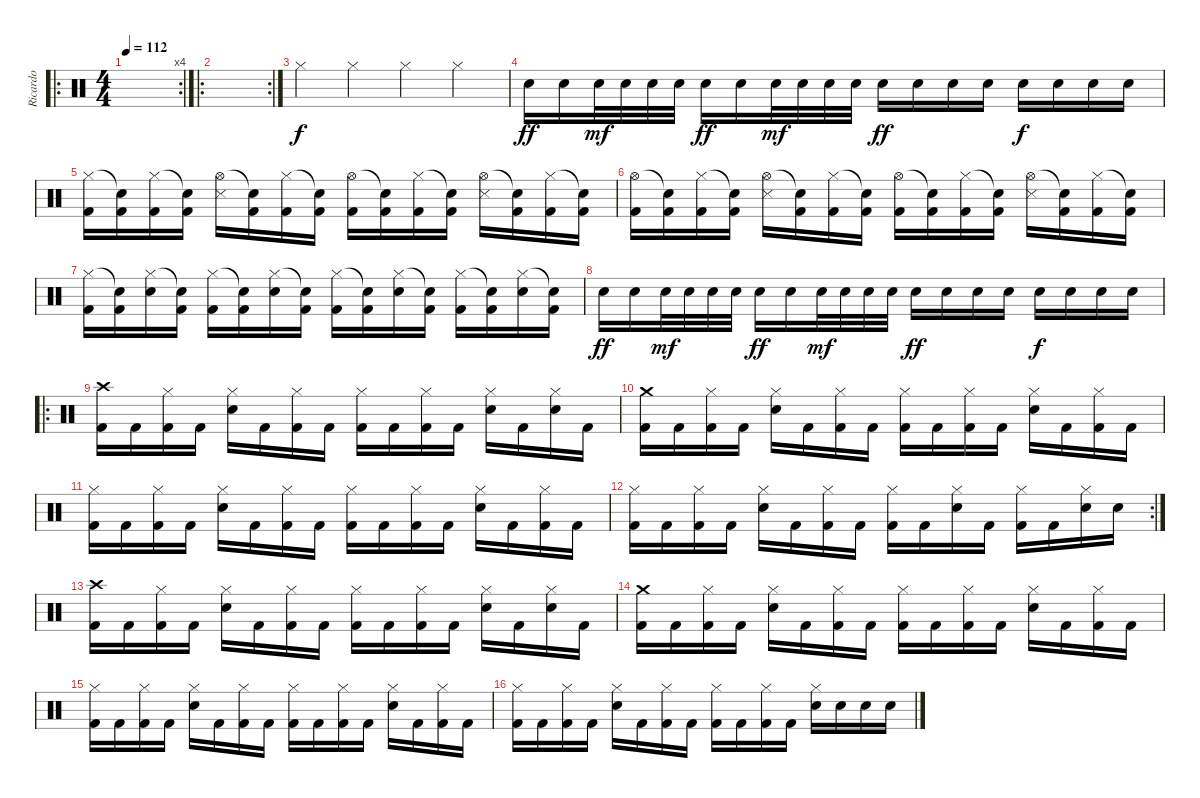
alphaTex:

\track ("Ricardo" "Ricardo") {instrument percussion}
\staff {score}
\articulation defaults
\ro
\rc 4
\ts (4 4)
\tempo 112
\clef neutral
\ks c
|
\ro
\rc 2
|
"Hi-Hat (closed)".4 "Hi-Hat (closed)".4 "Hi-Hat (closed)".4 "Hi-Hat (closed)".4 |
"Snare (hit) 2".16{dy ff} "Snare (hit) 2".16 "Snare (hit) 2".32{dy mf} "Snare (hit) 2".32 "Snare (hit) 2".32 "Snare (hit) 2".32 "Snare (hit) 2".16{dy ff} "Snare (hit) 2".16 "Snare (hit) 2".32{dy mf} "Snare (hit) 2".32 "Snare (hit) 2".32 "Snare (hit) 2".32 "Snare (hit) 2".16{dy ff} "Snare (hit) 2".16 "Snare (hit) 2".16 "Snare (hit) 2".16 "Snare (hit) 2".16{dy f} "Snare (hit) 2".16 "Snare (hit) 2".16 "Snare (hit) 2".16 |
("Hi-Hat (closed)" "Kick (hit) 2").16 ("Snare (hit)"{t} "Kick (hit) 2").16 ("Hi-Hat (closed)" "Kick (hit) 2").16 ("Snare (hit)"{t} "Kick (hit) 2").16 ("Hi-Hat (open)" "Snare (side stick) 3").16 ("Snare (hit)"{t} "Kick (hit) 2").16 ("Hi-Hat (closed)" "Kick (hit) 2").16 ("Snare (hit)"{t} "Kick (hit) 2").16 ("Hi-Hat (open)" "Kick (hit) 2").16 ("Snare (hit)"{t} "Kick (hit) 2").16 ("Hi-Hat (closed)" "Kick (hit) 2").16 ("Snare (hit)"{t} "Kick (hit) 2").16 ("Hi-Hat (open)" "Snare (side stick) 3").16 ("Snare (hit)"{t} "Kick (hit) 2").16 ("Hi-Hat (closed)" "Kick (hit) 2").16 ("Snare (hit)"{t} "Kick (hit) 2").16 |
("Hi-Hat (open)" "Kick (hit) 2").16 ("Snare (hit)"{t} "Kick (hit) 2").16 ("Hi-Hat (closed)" "Kick (hit) 2").16 ("Snare (hit)"{t} "Kick (hit) 2").16 ("Hi-Hat (open)" "Snare (side stick) 3").16 ("Snare (hit)"{t} "Kick (hit) 2").16 ("Hi-Hat (closed)" "Kick (hit) 2").16 ("Snare (hit)"{t} "Kick (hit) 2").16 ("Hi-Hat (open)" "Kick (hit) 2").16 ("Snare (hit)"{t} "Kick (hit) 2").16 ("Hi-Hat (closed)" "Kick (hit) 2").16 ("Snare (hit)"{t} "Kick (hit) 2").16 ("Hi-Hat (open)" "Snare (side stick) 3").16 ("Snare (hit)"{t} "Kick (hit) 2").16 ("Hi-Hat (closed)" "Kick (hit) 2").16 ("Snare (hit)"{t} "Kick (hit) 2").16 |
("Hi-Hat (closed)" "Kick (hit) 2").16 ("Snare (hit)"{t} "Kick (hit) 2").16 ("Hi-Hat (closed)" "Snare (hit) 2").16 ("Snare (hit)"{t} "Kick (hit) 2").16 ("Hi-Hat (closed)" "Kick (hit) 2").16 ("Snare (hit)"{t} "Kick (hit) 2").16 ("Hi-Hat (closed)" "Snare (hit) 2").16 ("Snare (hit)"{t} "Kick (hit) 2").16 ("Hi-Hat (closed)" "Kick (hit) 2").16 ("Snare (hit)"{t} "Kick (hit) 2").16 ("Hi-Hat (closed)" "Snare (hit) 2").16 ("Snare (hit)"{t} "Kick (hit) 2").16 ("Hi-Hat (closed)" "Kick (hit) 2").16 ("Snare (hit)"{t} "Kick (hit) 2").16 ("Hi-Hat (closed)" "Snare (hit) 2").16 ("Snare (hit)"{t} "Kick (hit) 2").16 |
"Snare (hit) 2".16{dy ff} "Snare (hit) 2".16 "Snare (hit) 2".32{dy mf} "Snare (hit) 2".32 "Snare (hit) 2".32 "Snare (hit) 2".32 "Snare (hit) 2".16{dy ff} "Snare (hit) 2".16 "Snare (hit) 2".32{dy mf} "Snare (hit) 2".32 "Snare (hit) 2".32 "Snare (hit) 2".32 "Snare (hit) 2".16{dy ff} "Snare (hit) 2".16 "Snare (hit) 2".16 "Snare (hit) 2".16 "Snare (hit) 2".16{dy f} "Snare (hit) 2".16 "Snare (hit) 2".16 "Snare (hit) 2".16 |
\ro
("Crash high (hit)" "Kick (hit) 2").16 "Kick (hit) 2".16 ("Hi-Hat (closed)" "Kick (hit) 2").16 "Kick (hit) 2".16 ("Hi-Hat (closed)" "Snare (hit) 2").16 "Kick (hit) 2".16 ("Hi-Hat (closed)" "Kick (hit) 2").16 "Kick (hit) 2".16 ("Hi-Hat (closed)" "Kick (hit) 2").16 "Kick (hit) 2".16 ("Hi-Hat (closed)" "Kick (hit) 2").16 "Kick (hit) 2".16 ("Hi-Hat (closed)" "Snare (hit) 2").16 "Kick (hit) 2".16 ("Hi-Hat (closed)" "Snare (hit) 2").16 "Kick (hit) 2".16 |
("Crash medium (hit)" "Kick (hit) 2").16 "Kick (hit) 2".16 ("Hi-Hat (closed)" "Kick (hit) 2").16 "Kick (hit) 2".16 ("Hi-Hat (closed)" "Snare (hit) 2").16 "Kick (hit) 2".16 ("Hi-Hat (closed)" "Kick (hit) 2").16 "Kick (hit) 2".16 ("Hi-Hat (closed)" "Kick (hit) 2").16 "Kick (hit) 2".16 ("Hi-Hat (closed)" "Kick (hit) 2").16 "Kick (hit) 2".16 ("Hi-Hat (closed)" "Snare (hit) 2").16 "Kick (hit) 2".16 ("Hi-Hat (closed)" "Kick (hit) 2").16 "Kick (hit) 2".16 |
("Hi-Hat (closed)" "Kick (hit) 2").16 "Kick (hit) 2".16 ("Hi-Hat (closed)" "Kick (hit) 2").16 "Kick (hit) 2".16 ("Hi-Hat (closed)" "Snare (hit) 2").16 "Kick (hit) 2".16 ("Hi-Hat (closed)" "Kick (hit) 2").16 "Kick (hit) 2".16 ("Hi-Hat (closed)" "Kick (hit) 2").16 "Kick (hit) 2".16 ("Hi-Hat (closed)" "Kick (hit) 2").16 "Kick (hit) 2".16 ("Hi-Hat (closed)" "Snare (hit) 2").16 "Kick (hit) 2".16 ("Hi-Hat (closed)" "Kick (hit) 2").16 "Kick (hit) 2".16 |
\rc 2
("Hi-Hat (closed)" "Kick (hit) 2").16 "Kick (hit) 2".16 ("Hi-Hat (closed)" "Kick (hit) 2").16 "Kick (hit) 2".16 ("Hi-Hat (closed)" "Snare (hit) 2").16 "Kick (hit) 2".16 ("Hi-Hat (closed)" "Kick (hit) 2").16 "Kick (hit) 2".16 ("Hi-Hat (closed)" "Kick (hit) 2").16 "Kick (hit) 2".16 ("Hi-Hat (closed)" "Snare (hit) 2").16 "Kick (hit) 2".16 ("Hi-Hat (closed)" "Kick (hit) 2").16 "Kick (hit) 2".16 ("Hi-Hat (closed)" "Snare (hit) 2").16 "Snare (hit) 2".16 |
("Crash high (hit)" "Kick (hit) 2").16 "Kick (hit) 2".16 ("Hi-Hat (closed)" "Kick (hit) 2").16 "Kick (hit) 2".16 ("Hi-Hat (closed)" "Snare (hit) 2").16 "Kick (hit) 2".16 ("Hi-Hat (closed)" "Kick (hit) 2").16 "Kick (hit) 2".16 ("Hi-Hat (closed)" "Kick (hit) 2").16 "Kick (hit) 2".16 ("Hi-Hat (closed)" "Kick (hit) 2").16 "Kick (hit) 2".16 ("Hi-Hat (closed)" "Snare (hit) 2").16 "Kick (hit) 2".16 ("Hi-Hat (closed)" "Snare (hit) 2").16 "Kick (hit) 2".16 |
("Crash medium (hit)" "Kick (hit) 2").16 "Kick (hit) 2".16 ("Hi-Hat (closed)" "Kick (hit) 2").16 "Kick (hit) 2".16 ("Hi-Hat (closed)" "Snare (hit) 2").16 "Kick (hit) 2".16 ("Hi-Hat (closed)" "Kick (hit) 2").16 "Kick (hit) 2".16 ("Hi-Hat (closed)" "Kick (hit) 2").16 "Kick (hit) 2".16 ("Hi-Hat (closed)" "Kick (hit) 2").16 "Kick (hit) 2".16 ("Hi-Hat (closed)" "Snare (hit) 2").16 "Kick (hit) 2".16 ("Hi-Hat (closed)" "Kick (hit) 2").16 "Kick (hit) 2".16 |
("Hi-Hat (closed)" "Kick (hit) 2").16 "Kick (hit) 2".16 ("Hi-Hat (closed)" "Kick (hit) 2").16 "Kick (hit) 2".16 ("Hi-Hat (closed)" "Snare (hit) 2").16 "Kick (hit) 2".16 ("Hi-Hat (closed)" "Kick (hit) 2").16 "Kick (hit) 2".16 ("Hi-Hat (closed)" "Kick (hit) 2").16 "Kick (hit) 2".16 ("Hi-Hat (closed)" "Kick (hit) 2").16 "Kick (hit) 2".16 ("Hi-Hat (closed)" "Snare (hit) 2").16 "Kick (hit) 2".16 ("Hi-Hat (closed)" "Kick (hit) 2").16 "Kick (hit) 2".16 |
("Hi-Hat (closed)" "Kick (hit) 2").16 "Kick (hit) 2".16 ("Hi-Hat (closed)" "Kick (hit) 2").16 "Kick (hit) 2".16 ("Hi-Hat (closed)" "Snare (hit) 2").16 "Kick (hit) 2".16 ("Hi-Hat (closed)" "Kick (hit) 2").16 "Kick (hit) 2".16 ("Hi-Hat (closed)" "Kick (hit) 2").16 "Kick (hit) 2".16 ("Hi-Hat (closed)" "Kick (hit) 2").16 "Kick (hit) 2".16 ("Hi-Hat (closed)" "Snare (hit) 2").16 "Snare (hit) 2".16 "Snare (hit) 2".16 "Snare (hit) 2".16
